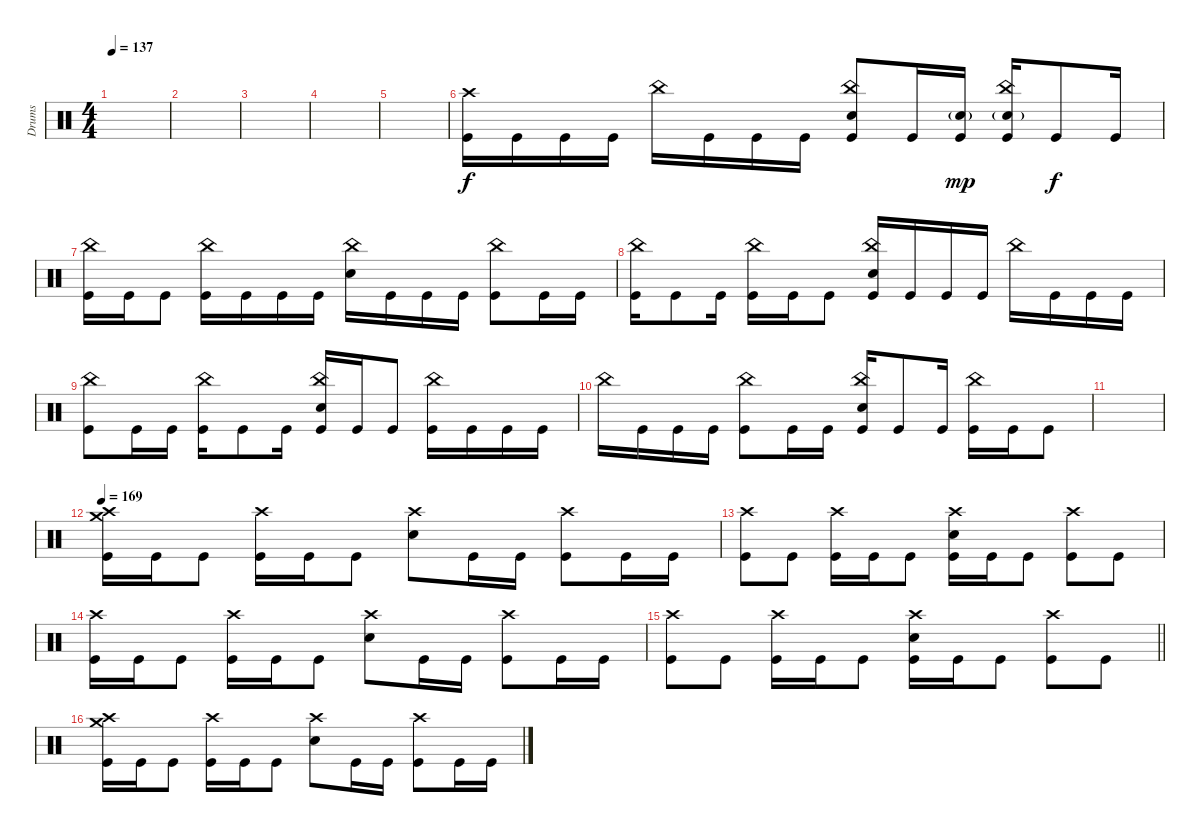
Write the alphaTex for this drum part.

\track ("Drums" "Drums") {instrument percussion}
\staff
\articulation defaults
\ts (4 4)
\tempo 137
\clef neutral
\ks c
|
|
|
|
|
("Crash high (hit)" "Kick (hit)").16 "Kick (hit)".16 "Kick (hit)".16 "Kick (hit)".16 "China (hit)".16 "Kick (hit)".16 "Kick (hit)".16 "Kick (hit)".16 ("China (hit)" "Electric Snare (hit)" "Kick (hit)").8 "Kick (hit)".16 ("Electric Snare (hit)"{g} "Kick (hit)").16{dy mp} ("China (hit)" "Electric Snare (hit)"{g} "Kick (hit)").16 "Kick (hit)".8{dy f} "Kick (hit)".16 |
("China (hit)" "Kick (hit)").16 "Kick (hit)".16 "Kick (hit)".8 ("China (hit)" "Kick (hit)").16 "Kick (hit)".16 "Kick (hit)".16 "Kick (hit)".16 ("China (hit)" "Electric Snare (hit)").16 "Kick (hit)".16 "Kick (hit)".16 "Kick (hit)".16 ("China (hit)" "Kick (hit)").8 "Kick (hit)".16 "Kick (hit)".16 |
("China (hit)" "Kick (hit)").16 "Kick (hit)".8 "Kick (hit)".16 ("China (hit)" "Kick (hit)").16 "Kick (hit)".16 "Kick (hit)".8 ("China (hit)" "Electric Snare (hit)" "Kick (hit)").16 "Kick (hit)".16 "Kick (hit)".16 "Kick (hit)".16 "China (hit)".16 "Kick (hit)".16 "Kick (hit)".16 "Kick (hit)".16 |
("China (hit)" "Kick (hit)").8 "Kick (hit)".16 "Kick (hit)".16 ("China (hit)" "Kick (hit)").16 "Kick (hit)".8 "Kick (hit)".16 ("China (hit)" "Electric Snare (hit)" "Kick (hit)").16 "Kick (hit)".16 "Kick (hit)".8 ("China (hit)" "Kick (hit)").16 "Kick (hit)".16 "Kick (hit)".16 "Kick (hit)".16 |
"China (hit)".16 "Kick (hit)".16 "Kick (hit)".16 "Kick (hit)".16 ("China (hit)" "Kick (hit)").8 "Kick (hit)".16 "Kick (hit)".16 ("China (hit)" "Electric Snare (hit)" "Kick (hit)").16 "Kick (hit)".8 "Kick (hit)".16 ("China (hit)" "Kick (hit)").16 "Kick (hit)".16 "Kick (hit)".8 |
|
\tempo 169
("Crash high (hit)" "Crash medium (hit)" "Kick (hit)").16 "Kick (hit)".16 "Kick (hit)".8 ("Crash high (hit)" "Kick (hit)").16 "Kick (hit)".16 "Kick (hit)".8 ("Crash high (hit)" "Electric Snare (hit)").8 "Kick (hit)".16 "Kick (hit)".16 ("Crash high (hit)" "Kick (hit)").8 "Kick (hit)".16 "Kick (hit)".16 |
("Crash high (hit)" "Kick (hit)").8 "Kick (hit)".8 ("Crash high (hit)" "Kick (hit)").16 "Kick (hit)".16 "Kick (hit)".8 ("Crash high (hit)" "Electric Snare (hit)" "Kick (hit)").16 "Kick (hit)".16 "Kick (hit)".8 ("Crash high (hit)" "Kick (hit)").8 "Kick (hit)".8 |
("Crash high (hit)" "Kick (hit)").16 "Kick (hit)".16 "Kick (hit)".8 ("Crash high (hit)" "Kick (hit)").16 "Kick (hit)".16 "Kick (hit)".8 ("Crash high (hit)" "Electric Snare (hit)").8 "Kick (hit)".16 "Kick (hit)".16 ("Crash high (hit)" "Kick (hit)").8 "Kick (hit)".16 "Kick (hit)".16 |
\barLineRight lightlight
("Crash high (hit)" "Kick (hit)").8 "Kick (hit)".8 ("Crash high (hit)" "Kick (hit)").16 "Kick (hit)".16 "Kick (hit)".8 ("Crash high (hit)" "Electric Snare (hit)" "Kick (hit)").16 "Kick (hit)".16 "Kick (hit)".8 ("Crash high (hit)" "Kick (hit)").8 "Kick (hit)".8 |
("Crash high (hit)" "Crash medium (hit)" "Kick (hit)").16 "Kick (hit)".16 "Kick (hit)".8 ("Crash high (hit)" "Kick (hit)").16 "Kick (hit)".16 "Kick (hit)".8 ("Crash high (hit)" "Electric Snare (hit)").8 "Kick (hit)".16 "Kick (hit)".16 ("Crash high (hit)" "Kick (hit)").8 "Kick (hit)".16 "Kick (hit)".16
